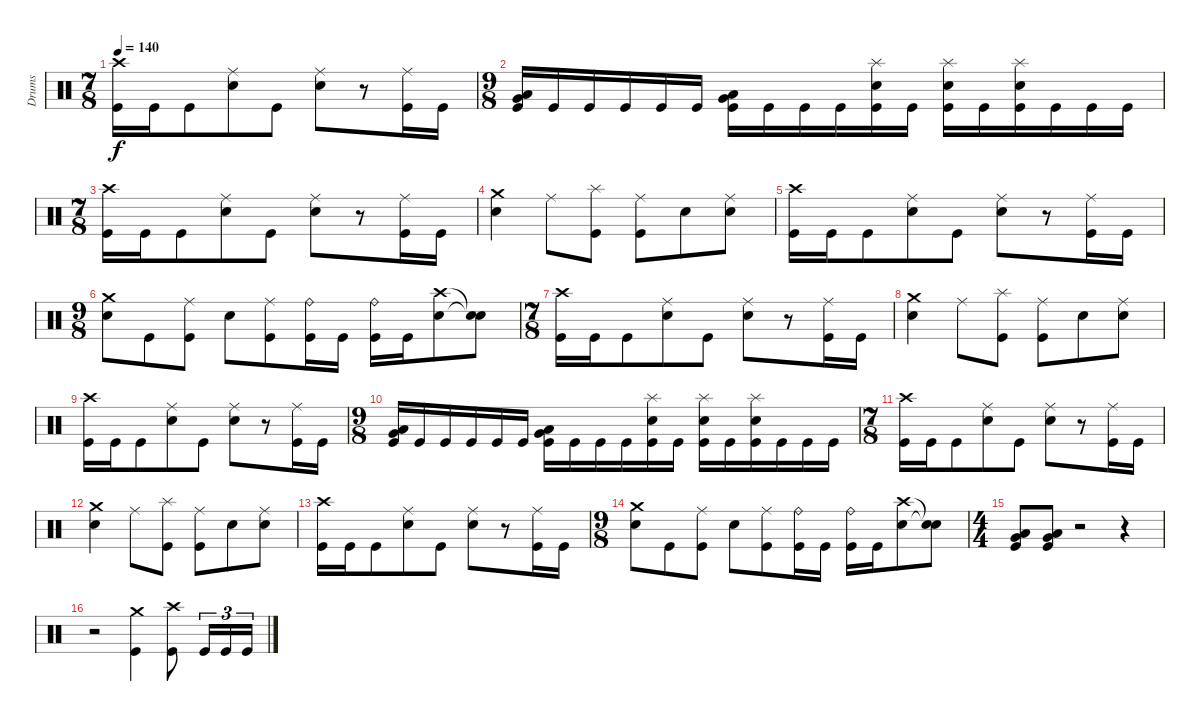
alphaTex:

\track ("Drums" "Drums") {instrument percussion}
\staff {score}
\articulation defaults
\ts (7 8)
\tempo 140
\clef neutral
\ks c
("Crash high (hit)" "Kick (hit)").16{dy f} "Kick (hit)".16 "Kick (hit)".8 ("Ride (middle)" "Electric Snare (hit)").8 "Kick (hit)".8 ("Ride (middle)" "Electric Snare (hit)").8 r.8 ("Ride (middle)" "Kick (hit)").16 "Kick (hit)".16 |
\ts (9 8)
("Low Tom (hit)" "Very Low Tom (hit)" "Kick (hit)").16 "Kick (hit)".16 "Kick (hit)".16 "Kick (hit)".16 "Kick (hit)".16 "Kick (hit)".16 ("Low Tom (hit)" "Very Low Tom (hit)" "Kick (hit)").16 "Kick (hit)".16 "Kick (hit)".16 "Kick (hit)".16 ("Splash (hit)" "Electric Snare (hit)" "Kick (hit)").16 "Kick (hit)".16 ("Splash (hit)" "Electric Snare (hit)" "Kick (hit)").16 "Kick (hit)".16 ("Splash (hit)" "Electric Snare (hit)" "Kick (hit)").16 "Kick (hit)".16 "Kick (hit)".16 "Kick (hit)".16 |
\ts (7 8)
("Crash high (hit)" "Kick (hit)").16 "Kick (hit)".16 "Kick (hit)".8 ("Ride (middle)" "Electric Snare (hit)").8 "Kick (hit)".8 ("Ride (middle)" "Electric Snare (hit)").8 r.8 ("Ride (middle)" "Kick (hit)").16 "Kick (hit)".16 |
("Crash medium (hit)" "Electric Snare (hit)").4 "Ride (middle)".8 ("Splash (hit)" "Kick (hit)").8 ("Ride (middle)" "Kick (hit)").8 "Electric Snare (hit)".8 ("Ride (middle)" "Electric Snare (hit)").8 |
("Crash high (hit)" "Kick (hit)").16 "Kick (hit)".16 "Kick (hit)".8 ("Ride (middle)" "Electric Snare (hit)").8 "Kick (hit)".8 ("Ride (middle)" "Electric Snare (hit)").8 r.8 ("Ride (middle)" "Kick (hit)").16 "Kick (hit)".16 |
\ts (9 8)
("Crash medium (hit)" "Electric Snare (hit)").8 "Kick (hit)".8 ("Ride (middle)" "Kick (hit)").8 "Electric Snare (hit)".8 ("Ride (middle)" "Kick (hit)").8 ("Ride (bell)" "Kick (hit)").16 "Kick (hit)".16 ("Ride (bell)" "Kick (hit)").16 "Kick (hit)".16 ("Crash high (hit)" "Electric Snare (hit)").8 ("Snare (hit)"{t} "Snare (hit)"{t}).8 |
\ts (7 8)
("Crash high (hit)" "Kick (hit)").16 "Kick (hit)".16 "Kick (hit)".8 ("Ride (middle)" "Electric Snare (hit)").8 "Kick (hit)".8 ("Ride (middle)" "Electric Snare (hit)").8 r.8 ("Ride (middle)" "Kick (hit)").16 "Kick (hit)".16 |
("Crash medium (hit)" "Electric Snare (hit)").4 "Ride (middle)".8 ("Splash (hit)" "Kick (hit)").8 ("Ride (middle)" "Kick (hit)").8 "Electric Snare (hit)".8 ("Ride (middle)" "Electric Snare (hit)").8 |
("Crash high (hit)" "Kick (hit)").16 "Kick (hit)".16 "Kick (hit)".8 ("Ride (middle)" "Electric Snare (hit)").8 "Kick (hit)".8 ("Ride (middle)" "Electric Snare (hit)").8 r.8 ("Ride (middle)" "Kick (hit)").16 "Kick (hit)".16 |
\ts (9 8)
("Low Tom (hit)" "Very Low Tom (hit)" "Kick (hit)").16 "Kick (hit)".16 "Kick (hit)".16 "Kick (hit)".16 "Kick (hit)".16 "Kick (hit)".16 ("Low Tom (hit)" "Very Low Tom (hit)" "Kick (hit)").16 "Kick (hit)".16 "Kick (hit)".16 "Kick (hit)".16 ("Splash (hit)" "Electric Snare (hit)" "Kick (hit)").16 "Kick (hit)".16 ("Splash (hit)" "Electric Snare (hit)" "Kick (hit)").16 "Kick (hit)".16 ("Splash (hit)" "Electric Snare (hit)" "Kick (hit)").16 "Kick (hit)".16 "Kick (hit)".16 "Kick (hit)".16 |
\ts (7 8)
("Crash high (hit)" "Kick (hit)").16 "Kick (hit)".16 "Kick (hit)".8 ("Ride (middle)" "Electric Snare (hit)").8 "Kick (hit)".8 ("Ride (middle)" "Electric Snare (hit)").8 r.8 ("Ride (middle)" "Kick (hit)").16 "Kick (hit)".16 |
("Crash medium (hit)" "Electric Snare (hit)").4 "Ride (middle)".8 ("Splash (hit)" "Kick (hit)").8 ("Ride (middle)" "Kick (hit)").8 "Electric Snare (hit)".8 ("Ride (middle)" "Electric Snare (hit)").8 |
("Crash high (hit)" "Kick (hit)").16 "Kick (hit)".16 "Kick (hit)".8 ("Ride (middle)" "Electric Snare (hit)").8 "Kick (hit)".8 ("Ride (middle)" "Electric Snare (hit)").8 r.8 ("Ride (middle)" "Kick (hit)").16 "Kick (hit)".16 |
\ts (9 8)
("Crash medium (hit)" "Electric Snare (hit)").8 "Kick (hit)".8 ("Ride (middle)" "Kick (hit)").8 "Electric Snare (hit)".8 ("Ride (middle)" "Kick (hit)").8 ("Ride (bell)" "Kick (hit)").16 "Kick (hit)".16 ("Ride (bell)" "Kick (hit)").16 "Kick (hit)".16 ("Crash high (hit)" "Electric Snare (hit)").8 ("Snare (hit)"{t} "Snare (hit)"{t}).8 |
\ts (4 4)
("Low Tom (hit)" "Very Low Tom (hit)" "Kick (hit)").8 ("Low Tom (hit)" "Very Low Tom (hit)" "Kick (hit)").8 r.2 r.4 |
r.2 ("Crash medium (hit)" "Kick (hit)").4 ("Crash high (hit)" "Kick (hit)").8 "Kick (hit)".16{tu (3 2)} "Kick (hit)".16{tu (3 2)} "Kick (hit)".16{tu (3 2)}
